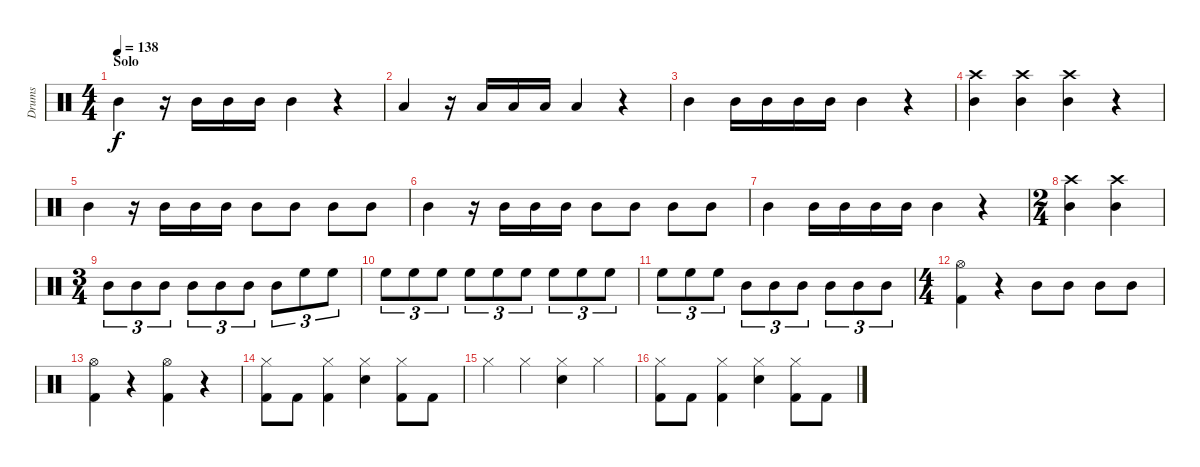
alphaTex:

\track ("Drums" "Drums") {instrument percussion}
\staff {score}
\articulation defaults
\ts (4 4)
\section ("" "Solo")
\tempo 138
\clef neutral
\ks c "Mid Tom (hit)".4{dy f}
r.16 "Mid Tom (hit)".16 "Mid Tom (hit)".16 "Mid Tom (hit)".16 "Mid Tom (hit)".4 r.4 |
"Low Tom (hit)".4 r.16 "Low Tom (hit)".16 "Low Tom (hit)".16 "Low Tom (hit)".16 "Low Tom (hit)".4 r.4 |
"Mid Tom (hit)".4 "Mid Tom (hit)".16 "Mid Tom (hit)".16 "Mid Tom (hit)".16 "Mid Tom (hit)".16 "Mid Tom (hit)".4 r.4 |
("Crash high (hit)" "Mid Tom (hit)").4 ("Crash high (hit)" "Mid Tom (hit)").4 ("Crash high (hit)" "Mid Tom (hit)").4 r.4 |
"Mid Tom (hit)".4 r.16 "Mid Tom (hit)".16 "Mid Tom (hit)".16 "Mid Tom (hit)".16 "Mid Tom (hit)".8 "Mid Tom (hit)".8 "Mid Tom (hit)".8 "Mid Tom (hit)".8 |
"Mid Tom (hit)".4 r.16 "Mid Tom (hit)".16 "Mid Tom (hit)".16 "Mid Tom (hit)".16 "Mid Tom (hit)".8 "Mid Tom (hit)".8 "Mid Tom (hit)".8 "Mid Tom (hit)".8 |
"Mid Tom (hit)".4 "Mid Tom (hit)".16 "Mid Tom (hit)".16 "Mid Tom (hit)".16 "Mid Tom (hit)".16 "Mid Tom (hit)".4 r.4 |
\ts (2 4)
("Crash high (hit)" "Mid Tom (hit)").4 ("Crash high (hit)" "Mid Tom (hit)").4 |
\ts (3 4)
"Mid Tom (hit)".8{tu (3 2)} "Mid Tom (hit)".8{tu (3 2)} "Mid Tom (hit)".8{tu (3 2)} "Mid Tom (hit)".8{tu (3 2)} "Mid Tom (hit)".8{tu (3 2)} "Mid Tom (hit)".8{tu (3 2)} "Mid Tom (hit)".8{tu (3 2)} "High Floor Tom (hit)".8{tu (3 2)} "High Floor Tom (hit)".8{tu (3 2)} |
"High Floor Tom (hit)".8{tu (3 2)} "High Floor Tom (hit)".8{tu (3 2)} "High Floor Tom (hit)".8{tu (3 2)} "High Floor Tom (hit)".8{tu (3 2)} "High Floor Tom (hit)".8{tu (3 2)} "High Floor Tom (hit)".8{tu (3 2)} "High Floor Tom (hit)".8{tu (3 2)} "High Floor Tom (hit)".8{tu (3 2)} "High Floor Tom (hit)".8{tu (3 2)} |
"High Floor Tom (hit)".8{tu (3 2)} "High Floor Tom (hit)".8{tu (3 2)} "High Floor Tom (hit)".8{tu (3 2)} "Mid Tom (hit)".8{tu (3 2)} "Mid Tom (hit)".8{tu (3 2)} "Mid Tom (hit)".8{tu (3 2)} "Mid Tom (hit)".8{tu (3 2)} "Mid Tom (hit)".8{tu (3 2)} "Mid Tom (hit)".8{tu (3 2)} |
\ts (4 4)
("Hi-Hat (open)" "Kick (hit) 2").4 r.4 "Mid Tom (hit)".8 "Mid Tom (hit)".8 "Mid Tom (hit)".8 "Mid Tom (hit)".8 |
("Hi-Hat (open)" "Kick (hit) 2").4 r.4 ("Hi-Hat (open)" "Kick (hit) 2").4 r.4 |
("Hi-Hat (closed)" "Kick (hit) 2").8 "Kick (hit) 2".8 ("Hi-Hat (closed)" "Kick (hit) 2").4 ("Hi-Hat (closed)" "Snare (hit) 2").4 ("Hi-Hat (closed)" "Kick (hit) 2").8 "Kick (hit) 2".8 |
"Hi-Hat (closed)".4 "Hi-Hat (closed)".4 ("Hi-Hat (closed)" "Snare (hit) 2").4 "Hi-Hat (closed)".4 |
("Hi-Hat (closed)" "Kick (hit) 2").8 "Kick (hit) 2".8 ("Hi-Hat (closed)" "Kick (hit) 2").4 ("Hi-Hat (closed)" "Snare (hit) 2").4 ("Hi-Hat (closed)" "Kick (hit) 2").8 "Kick (hit) 2".8
